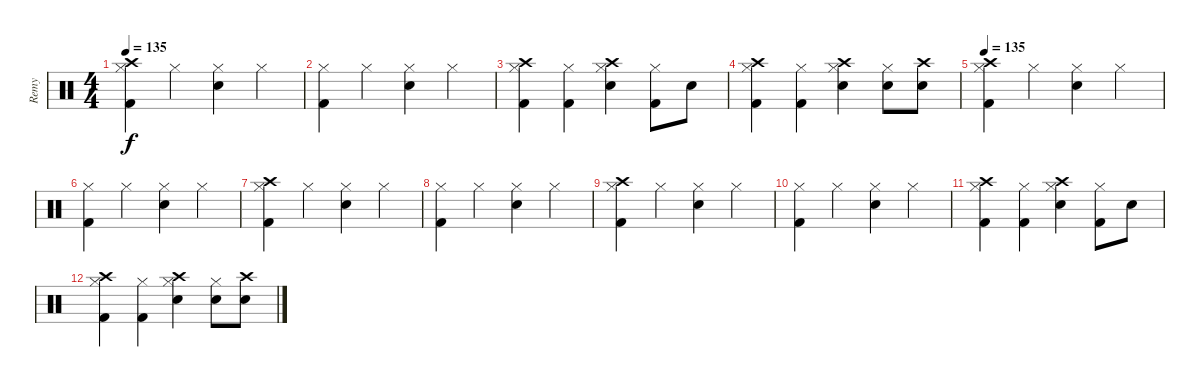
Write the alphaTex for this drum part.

\track ("Remy" "Remy") {instrument percussion}
\staff {score}
\articulation defaults
\ts (4 4)
\tempo 135
\clef neutral
\ks c
("Crash high (hit)" "Hi-Hat (closed)" "Kick (hit) 2").4{dy f} "Hi-Hat (closed)".4 ("Snare (hit) 2" "Hi-Hat (closed)").4 "Hi-Hat (closed)".4 |
("Hi-Hat (closed)" "Kick (hit) 2").4 "Hi-Hat (closed)".4 ("Snare (hit) 2" "Hi-Hat (closed)").4 "Hi-Hat (closed)".4 |
("Crash high (hit)" "Hi-Hat (closed)" "Kick (hit) 2").4 ("Hi-Hat (closed)" "Kick (hit) 2").4 ("Crash high (hit)" "Snare (hit) 2" "Hi-Hat (closed)").4 ("Hi-Hat (closed)" "Kick (hit) 2").8 "Snare (hit) 2".8 |
("Crash high (hit)" "Hi-Hat (closed)" "Kick (hit) 2").4 ("Hi-Hat (closed)" "Kick (hit) 2").4 ("Crash high (hit)" "Snare (hit) 2" "Hi-Hat (closed)").4 ("Snare (hit) 2" "Hi-Hat (closed)").8 ("Crash high (hit)" "Snare (hit) 2").8 |
\tempo 135
("Crash high (hit)" "Hi-Hat (closed)" "Kick (hit) 2").4 "Hi-Hat (closed)".4 ("Snare (hit) 2" "Hi-Hat (closed)").4 "Hi-Hat (closed)".4 |
("Hi-Hat (closed)" "Kick (hit) 2").4 "Hi-Hat (closed)".4 ("Snare (hit) 2" "Hi-Hat (closed)").4 "Hi-Hat (closed)".4 |
("Crash high (hit)" "Hi-Hat (closed)" "Kick (hit) 2").4 "Hi-Hat (closed)".4 ("Snare (hit) 2" "Hi-Hat (closed)").4 "Hi-Hat (closed)".4 |
("Hi-Hat (closed)" "Kick (hit) 2").4 "Hi-Hat (closed)".4 ("Snare (hit) 2" "Hi-Hat (closed)").4 "Hi-Hat (closed)".4 |
("Crash high (hit)" "Hi-Hat (closed)" "Kick (hit) 2").4 "Hi-Hat (closed)".4 ("Snare (hit) 2" "Hi-Hat (closed)").4 "Hi-Hat (closed)".4 |
("Hi-Hat (closed)" "Kick (hit) 2").4 "Hi-Hat (closed)".4 ("Snare (hit) 2" "Hi-Hat (closed)").4 "Hi-Hat (closed)".4 |
("Crash high (hit)" "Hi-Hat (closed)" "Kick (hit) 2").4 ("Hi-Hat (closed)" "Kick (hit) 2").4 ("Crash high (hit)" "Snare (hit) 2" "Hi-Hat (closed)").4 ("Hi-Hat (closed)" "Kick (hit) 2").8 "Snare (hit) 2".8 |
("Crash high (hit)" "Hi-Hat (closed)" "Kick (hit) 2").4 ("Hi-Hat (closed)" "Kick (hit) 2").4 ("Crash high (hit)" "Snare (hit) 2" "Hi-Hat (closed)").4 ("Snare (hit) 2" "Hi-Hat (closed)").8 ("Crash high (hit)" "Snare (hit) 2").8
